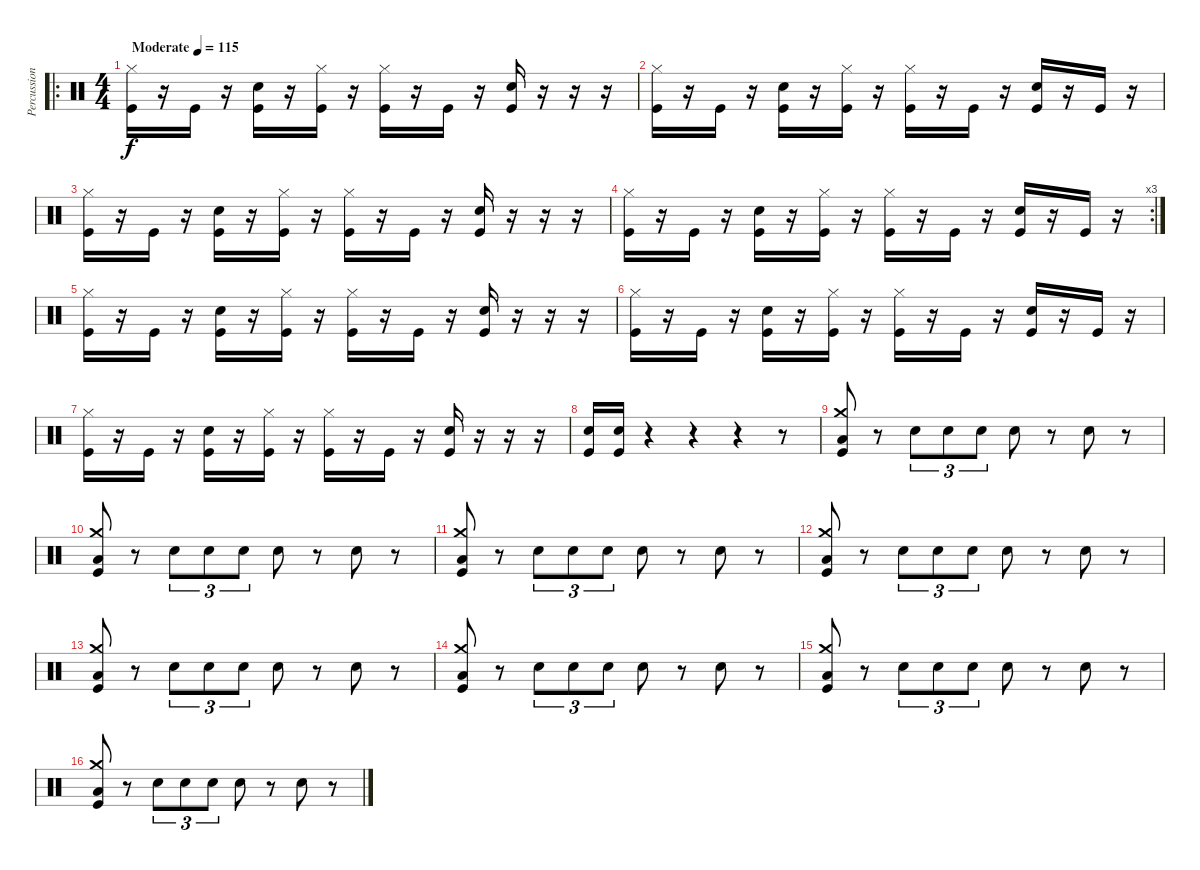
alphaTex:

\track ("Percussion" "Percussion") {instrument percussion}
\staff {score}
\articulation defaults
\ro
\ts (4 4)
\tempo (115 "Moderate")
\clef neutral
\ks c
("Hi-Hat (closed)" "Kick (hit)").16{dy f volume 10} r.16 "Kick (hit)".16 r.16 ("Snare (hit) 2" "Kick (hit)").16 r.16 ("Hi-Hat (closed)" "Kick (hit)").16 r.16 ("Hi-Hat (closed)" "Kick (hit)").16 r.16 "Kick (hit)".16 r.16 ("Snare (hit) 2" "Kick (hit)").16 r.16 r.16 r.16 |
("Hi-Hat (closed)" "Kick (hit)").16 r.16 "Kick (hit)".16 r.16 ("Snare (hit) 2" "Kick (hit)").16 r.16 ("Hi-Hat (closed)" "Kick (hit)").16 r.16 ("Hi-Hat (closed)" "Kick (hit)").16 r.16 "Kick (hit)".16 r.16 ("Snare (hit) 2" "Kick (hit)").16 r.16 "Kick (hit)".16 r.16 |
("Hi-Hat (closed)" "Kick (hit)").16 r.16 "Kick (hit)".16 r.16 ("Snare (hit) 2" "Kick (hit)").16 r.16 ("Hi-Hat (closed)" "Kick (hit)").16 r.16 ("Hi-Hat (closed)" "Kick (hit)").16 r.16 "Kick (hit)".16 r.16 ("Snare (hit) 2" "Kick (hit)").16 r.16 r.16 r.16 |
\rc 3
("Hi-Hat (closed)" "Kick (hit)").16 r.16 "Kick (hit)".16 r.16 ("Snare (hit) 2" "Kick (hit)").16 r.16 ("Hi-Hat (closed)" "Kick (hit)").16 r.16 ("Hi-Hat (closed)" "Kick (hit)").16 r.16 "Kick (hit)".16 r.16 ("Snare (hit) 2" "Kick (hit)").16 r.16 "Kick (hit)".16 r.16 |
("Hi-Hat (closed)" "Kick (hit)").16 r.16 "Kick (hit)".16 r.16 ("Snare (hit) 2" "Kick (hit)").16 r.16 ("Hi-Hat (closed)" "Kick (hit)").16 r.16 ("Hi-Hat (closed)" "Kick (hit)").16 r.16 "Kick (hit)".16 r.16 ("Snare (hit) 2" "Kick (hit)").16 r.16 r.16 r.16 |
("Hi-Hat (closed)" "Kick (hit)").16 r.16 "Kick (hit)".16 r.16 ("Snare (hit) 2" "Kick (hit)").16 r.16 ("Hi-Hat (closed)" "Kick (hit)").16 r.16 ("Hi-Hat (closed)" "Kick (hit)").16 r.16 "Kick (hit)".16 r.16 ("Snare (hit) 2" "Kick (hit)").16 r.16 "Kick (hit)".16 r.16 |
("Hi-Hat (closed)" "Kick (hit)").16 r.16 "Kick (hit)".16 r.16 ("Snare (hit) 2" "Kick (hit)").16 r.16 ("Hi-Hat (closed)" "Kick (hit)").16 r.16 ("Hi-Hat (closed)" "Kick (hit)").16 r.16 "Kick (hit)".16 r.16 ("Snare (hit) 2" "Kick (hit)").16 r.16 r.16 r.16 |
("Snare (hit) 2" "Kick (hit)").16 ("Snare (hit) 2" "Kick (hit)").16 r.4 r.4 r.4 r.8 |
("Crash medium (hit)" "Kick (hit)" "Low Tom (hit)").8 r.8 "Snare (hit) 2".8{tu (3 2)} "Snare (hit) 2".8{tu (3 2)} "Snare (hit) 2".8{tu (3 2)} "Snare (hit) 2".8 r.8 "Snare (hit) 2".8 r.8 |
("Crash medium (hit)" "Kick (hit)" "Low Tom (hit)").8 r.8 "Snare (hit) 2".8{tu (3 2)} "Snare (hit) 2".8{tu (3 2)} "Snare (hit) 2".8{tu (3 2)} "Snare (hit) 2".8 r.8 "Snare (hit) 2".8 r.8 |
("Crash medium (hit)" "Kick (hit)" "Low Tom (hit)").8 r.8 "Snare (hit) 2".8{tu (3 2)} "Snare (hit) 2".8{tu (3 2)} "Snare (hit) 2".8{tu (3 2)} "Snare (hit) 2".8 r.8 "Snare (hit) 2".8 r.8 |
("Crash medium (hit)" "Kick (hit)" "Low Tom (hit)").8 r.8 "Snare (hit) 2".8{tu (3 2)} "Snare (hit) 2".8{tu (3 2)} "Snare (hit) 2".8{tu (3 2)} "Snare (hit) 2".8 r.8 "Snare (hit) 2".8 r.8 |
("Crash medium (hit)" "Kick (hit)" "Low Tom (hit)").8 r.8 "Snare (hit) 2".8{tu (3 2)} "Snare (hit) 2".8{tu (3 2)} "Snare (hit) 2".8{tu (3 2)} "Snare (hit) 2".8 r.8 "Snare (hit) 2".8 r.8 |
("Crash medium (hit)" "Kick (hit)" "Low Tom (hit)").8 r.8 "Snare (hit) 2".8{tu (3 2)} "Snare (hit) 2".8{tu (3 2)} "Snare (hit) 2".8{tu (3 2)} "Snare (hit) 2".8 r.8 "Snare (hit) 2".8 r.8 |
("Crash medium (hit)" "Kick (hit)" "Low Tom (hit)").8 r.8 "Snare (hit) 2".8{tu (3 2)} "Snare (hit) 2".8{tu (3 2)} "Snare (hit) 2".8{tu (3 2)} "Snare (hit) 2".8 r.8 "Snare (hit) 2".8 r.8 |
("Crash medium (hit)" "Kick (hit)" "Low Tom (hit)").8 r.8 "Snare (hit) 2".8{tu (3 2)} "Snare (hit) 2".8{tu (3 2)} "Snare (hit) 2".8{tu (3 2)} "Snare (hit) 2".8 r.8 "Snare (hit) 2".8 r.8
